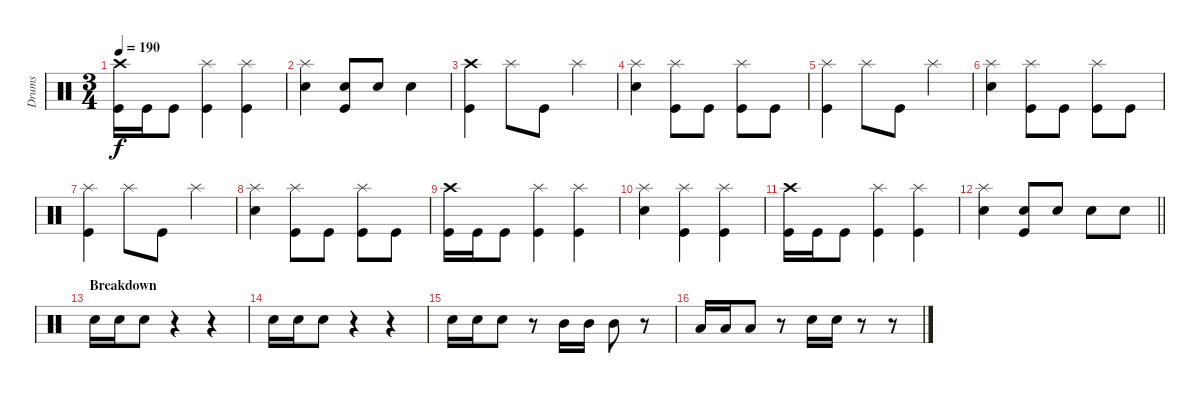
\track ("Drums" "Drums") {instrument percussion}
\staff {score}
\articulation defaults
\ts (3 4)
\tempo 190
\clef neutral
\ks c
("Kick (hit)" "Crash high (hit)").16{dy f} "Kick (hit)".16 "Kick (hit)".8 ("Splash (hit)" "Kick (hit)").4 ("Kick (hit)" "Splash (hit)").4 |
("Snare (hit) 2" "Splash (hit)").4 ("Snare (hit) 2" "Kick (hit)").8 "Snare (hit) 2".8 "Snare (hit) 2".4 |
("Kick (hit)" "Crash high (hit)").4 "Splash (hit)".8 "Kick (hit)".8 "Splash (hit)".4 |
("Snare (hit) 2" "Splash (hit)").4 ("Splash (hit)" "Kick (hit)").8 "Kick (hit)".8 ("Kick (hit)" "Splash (hit)").8 "Kick (hit)".8 |
("Kick (hit)" "Splash (hit)").4 "Splash (hit)".8 "Kick (hit)".8 "Splash (hit)".4 |
("Snare (hit) 2" "Splash (hit)").4 ("Splash (hit)" "Kick (hit)").8 "Kick (hit)".8 ("Kick (hit)" "Splash (hit)").8 "Kick (hit)".8 |
("Kick (hit)" "Splash (hit)").4 "Splash (hit)".8 "Kick (hit)".8 "Splash (hit)".4 |
("Snare (hit) 2" "Splash (hit)").4 ("Splash (hit)" "Kick (hit)").8 "Kick (hit)".8 ("Kick (hit)" "Splash (hit)").8 "Kick (hit)".8 |
("Kick (hit)" "Crash high (hit)").16 "Kick (hit)".16 "Kick (hit)".8 ("Splash (hit)" "Kick (hit)").4 ("Kick (hit)" "Splash (hit)").4 |
("Snare (hit) 2" "Splash (hit)").4 ("Splash (hit)" "Kick (hit)").4 ("Splash (hit)" "Kick (hit)").4 |
("Kick (hit)" "Crash high (hit)").16 "Kick (hit)".16 "Kick (hit)".8 ("Splash (hit)" "Kick (hit)").4 ("Kick (hit)" "Splash (hit)").4 |
\barLineRight lightlight
("Snare (hit) 2" "Splash (hit)").4 ("Snare (hit) 2" "Kick (hit)").8 "Snare (hit) 2".8 "Snare (hit) 2".8 "Snare (hit) 2".8 |
\section ("" "Breakdown")
"Snare (hit) 2".16 "Snare (hit) 2".16 "Snare (hit) 2".8 r.4 r.4 |
"Snare (hit) 2".16 "Snare (hit) 2".16 "Snare (hit) 2".8 r.4 r.4 |
"Snare (hit) 2".16 "Snare (hit) 2".16 "Snare (hit) 2".8 r.8 "Mid Tom (hit)".16 "Mid Tom (hit)".16 "Mid Tom (hit)".8 r.8 |
"Low Tom (hit)".16 "Low Tom (hit)".16 "Low Tom (hit)".8 r.8 "Snare (hit) 2".16 "Snare (hit) 2".16 r.8 r.8
